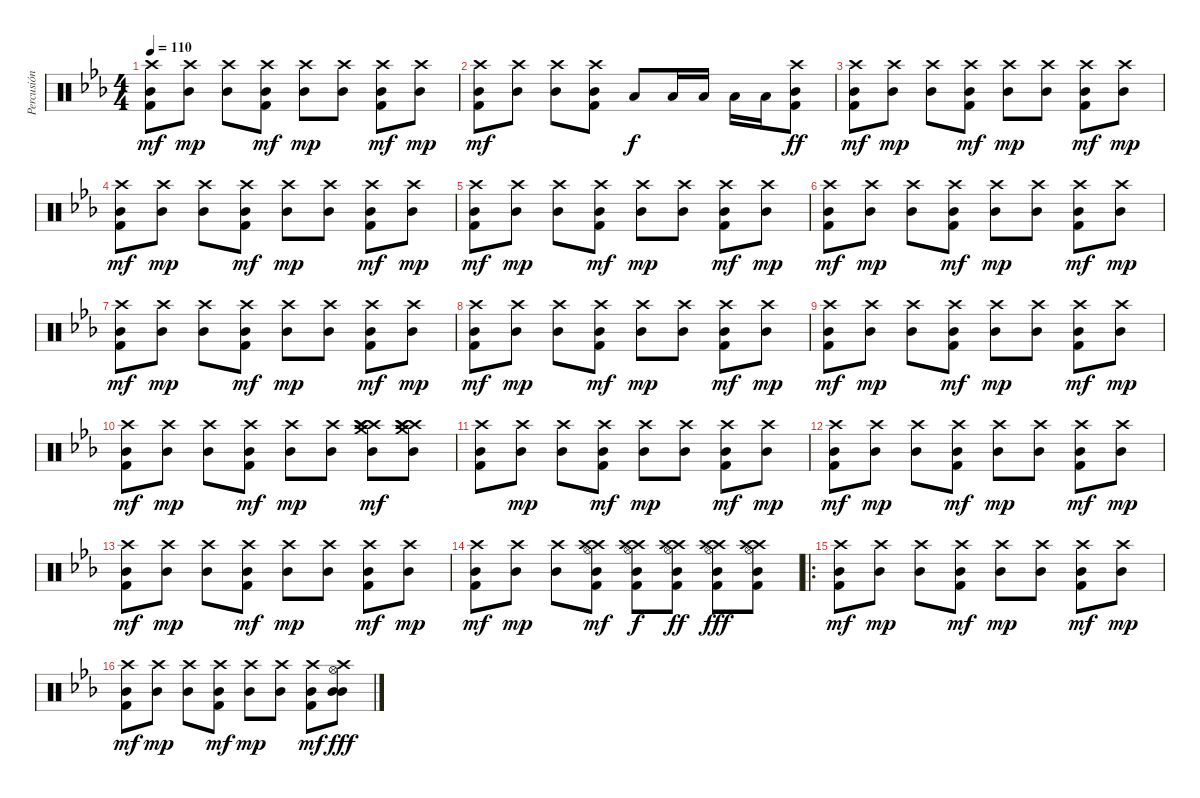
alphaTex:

\track ("Percusión" "Percusión") {instrument percussion}
\staff {score}
\articulation defaults
\ts (4 4)
\tempo 110
\clef neutral
\ks eb
("Kick (hit) 2" "Mid Tom (hit)" "Crash high (hit)").8{dy mf} ("Mid Tom (hit)" "Crash high (hit)").8{dy mp} ("Mid Tom (hit)" "Crash high (hit)").8 ("Kick (hit) 2" "Mid Tom (hit)" "Crash high (hit)").8{dy mf} ("Mid Tom (hit)" "Crash high (hit)").8{dy mp} ("Mid Tom (hit)" "Crash high (hit)").8 ("Kick (hit) 2" "Mid Tom (hit)" "Crash high (hit)").8{dy mf} ("Mid Tom (hit)" "Crash high (hit)").8{dy mp} |
("Kick (hit) 2" "Mid Tom (hit)" "Crash high (hit)").8{dy mf} ("Mid Tom (hit)" "Crash high (hit)").8 ("Mid Tom (hit)" "Crash high (hit)").8 ("Kick (hit) 2" "Mid Tom (hit)" "Crash high (hit)").8 "Low Tom (hit)".8{dy f} "Low Tom (hit)".16 "Low Tom (hit)".16 "Low Tom (hit)".16 "Low Tom (hit)".16 ("Kick (hit) 2" "Mid Tom (hit)" "Crash high (hit)").8{dy ff} |
("Kick (hit) 2" "Mid Tom (hit)" "Crash high (hit)").8{dy mf} ("Mid Tom (hit)" "Crash high (hit)").8{dy mp} ("Mid Tom (hit)" "Crash high (hit)").8 ("Kick (hit) 2" "Mid Tom (hit)" "Crash high (hit)").8{dy mf} ("Mid Tom (hit)" "Crash high (hit)").8{dy mp} ("Mid Tom (hit)" "Crash high (hit)").8 ("Kick (hit) 2" "Mid Tom (hit)" "Crash high (hit)").8{dy mf} ("Mid Tom (hit)" "Crash high (hit)").8{dy mp} |
("Kick (hit) 2" "Mid Tom (hit)" "Crash high (hit)").8{dy mf} ("Mid Tom (hit)" "Crash high (hit)").8{dy mp} ("Mid Tom (hit)" "Crash high (hit)").8 ("Kick (hit) 2" "Mid Tom (hit)" "Crash high (hit)").8{dy mf} ("Mid Tom (hit)" "Crash high (hit)").8{dy mp} ("Mid Tom (hit)" "Crash high (hit)").8 ("Kick (hit) 2" "Mid Tom (hit)" "Crash high (hit)").8{dy mf} ("Mid Tom (hit)" "Crash high (hit)").8{dy mp} |
("Kick (hit) 2" "Mid Tom (hit)" "Crash high (hit)").8{dy mf} ("Mid Tom (hit)" "Crash high (hit)").8{dy mp} ("Mid Tom (hit)" "Crash high (hit)").8 ("Kick (hit) 2" "Mid Tom (hit)" "Crash high (hit)").8{dy mf} ("Mid Tom (hit)" "Crash high (hit)").8{dy mp} ("Mid Tom (hit)" "Crash high (hit)").8 ("Kick (hit) 2" "Mid Tom (hit)" "Crash high (hit)").8{dy mf} ("Mid Tom (hit)" "Crash high (hit)").8{dy mp} |
("Kick (hit) 2" "Mid Tom (hit)" "Crash high (hit)").8{dy mf} ("Mid Tom (hit)" "Crash high (hit)").8{dy mp} ("Mid Tom (hit)" "Crash high (hit)").8 ("Kick (hit) 2" "Mid Tom (hit)" "Crash high (hit)").8{dy mf} ("Mid Tom (hit)" "Crash high (hit)").8{dy mp} ("Mid Tom (hit)" "Crash high (hit)").8 ("Kick (hit) 2" "Mid Tom (hit)" "Crash high (hit)").8{dy mf} ("Mid Tom (hit)" "Crash high (hit)").8{dy mp} |
("Kick (hit) 2" "Mid Tom (hit)" "Crash high (hit)").8{dy mf} ("Mid Tom (hit)" "Crash high (hit)").8{dy mp} ("Mid Tom (hit)" "Crash high (hit)").8 ("Kick (hit) 2" "Mid Tom (hit)" "Crash high (hit)").8{dy mf} ("Mid Tom (hit)" "Crash high (hit)").8{dy mp} ("Mid Tom (hit)" "Crash high (hit)").8 ("Kick (hit) 2" "Mid Tom (hit)" "Crash high (hit)").8{dy mf} ("Mid Tom (hit)" "Crash high (hit)").8{dy mp} |
("Kick (hit) 2" "Mid Tom (hit)" "Crash high (hit)").8{dy mf} ("Mid Tom (hit)" "Crash high (hit)").8{dy mp} ("Mid Tom (hit)" "Crash high (hit)").8 ("Kick (hit) 2" "Mid Tom (hit)" "Crash high (hit)").8{dy mf} ("Mid Tom (hit)" "Crash high (hit)").8{dy mp} ("Mid Tom (hit)" "Crash high (hit)").8 ("Kick (hit) 2" "Mid Tom (hit)" "Crash high (hit)").8{dy mf} ("Mid Tom (hit)" "Crash high (hit)").8{dy mp} |
("Kick (hit) 2" "Mid Tom (hit)" "Crash high (hit)").8{dy mf} ("Mid Tom (hit)" "Crash high (hit)").8{dy mp} ("Mid Tom (hit)" "Crash high (hit)").8 ("Kick (hit) 2" "Mid Tom (hit)" "Crash high (hit)").8{dy mf} ("Mid Tom (hit)" "Crash high (hit)").8{dy mp} ("Mid Tom (hit)" "Crash high (hit)").8 ("Kick (hit) 2" "Mid Tom (hit)" "Crash high (hit)").8{dy mf} ("Mid Tom (hit)" "Crash high (hit)").8{dy mp} |
("Kick (hit) 2" "Mid Tom (hit)" "Crash high (hit)").8{dy mf} ("Mid Tom (hit)" "Crash high (hit)").8{dy mp} ("Mid Tom (hit)" "Crash high (hit)").8 ("Kick (hit) 2" "Mid Tom (hit)" "Crash high (hit)").8{dy mf} ("Mid Tom (hit)" "Crash high (hit)").8{dy mp} ("Mid Tom (hit)" "Crash high (hit)").8 ("Crash high (hit)" "Crash high (hit)" "Crash medium (hit)" "Mid Tom (hit)" "Crash high (hit)").8{dy mf} ("Crash high (hit)" "Crash high (hit)" "Crash medium (hit)" "Mid Tom (hit)" "Crash high (hit)").8 |
("Kick (hit) 2" "Mid Tom (hit)" "Crash high (hit)").8 ("Mid Tom (hit)" "Crash high (hit)").8{dy mp} ("Mid Tom (hit)" "Crash high (hit)").8 ("Kick (hit) 2" "Mid Tom (hit)" "Crash high (hit)").8{dy mf} ("Mid Tom (hit)" "Crash high (hit)").8{dy mp} ("Mid Tom (hit)" "Crash high (hit)").8 ("Kick (hit) 2" "Mid Tom (hit)" "Crash high (hit)").8{dy mf} ("Mid Tom (hit)" "Crash high (hit)").8{dy mp} |
("Kick (hit) 2" "Mid Tom (hit)" "Crash high (hit)").8{dy mf} ("Mid Tom (hit)" "Crash high (hit)").8{dy mp} ("Mid Tom (hit)" "Crash high (hit)").8 ("Kick (hit) 2" "Mid Tom (hit)" "Crash high (hit)").8{dy mf} ("Mid Tom (hit)" "Crash high (hit)").8{dy mp} ("Mid Tom (hit)" "Crash high (hit)").8 ("Kick (hit) 2" "Mid Tom (hit)" "Crash high (hit)").8{dy mf} ("Mid Tom (hit)" "Crash high (hit)").8{dy mp} |
("Kick (hit) 2" "Mid Tom (hit)" "Crash high (hit)").8{dy mf} ("Mid Tom (hit)" "Crash high (hit)").8{dy mp} ("Mid Tom (hit)" "Crash high (hit)").8 ("Kick (hit) 2" "Mid Tom (hit)" "Crash high (hit)").8{dy mf} ("Mid Tom (hit)" "Crash high (hit)").8{dy mp} ("Mid Tom (hit)" "Crash high (hit)").8 ("Kick (hit) 2" "Mid Tom (hit)" "Crash high (hit)").8{dy mf} ("Mid Tom (hit)" "Crash high (hit)").8{dy mp} |
("Kick (hit) 2" "Mid Tom (hit)" "Crash high (hit)").8{dy mf} ("Mid Tom (hit)" "Crash high (hit)").8{dy mp} ("Mid Tom (hit)" "Crash high (hit)").8 ("Hi-Hat (open)" "Crash high (hit)" "Kick (hit) 2" "Mid Tom (hit)" "Crash high (hit)").8{dy mf} ("Hi-Hat (open)" "Crash high (hit)" "Kick (hit) 2" "Mid Tom (hit)" "Crash high (hit)").8{dy f} ("Hi-Hat (open)" "Crash high (hit)" "Kick (hit) 2" "Mid Tom (hit)" "Crash high (hit)").8{dy ff} ("Hi-Hat (open)" "Crash high (hit)" "Kick (hit) 2" "Mid Tom (hit)" "Crash high (hit)").8{dy fff} ("Hi-Hat (open)" "Crash high (hit)" "Kick (hit) 2" "Mid Tom (hit)" "Crash high (hit)").8 |
\ro
("Kick (hit) 2" "Mid Tom (hit)" "Crash high (hit)").8{dy mf} ("Mid Tom (hit)" "Crash high (hit)").8{dy mp} ("Mid Tom (hit)" "Crash high (hit)").8 ("Kick (hit) 2" "Mid Tom (hit)" "Crash high (hit)").8{dy mf} ("Mid Tom (hit)" "Crash high (hit)").8{dy mp} ("Mid Tom (hit)" "Crash high (hit)").8 ("Kick (hit) 2" "Mid Tom (hit)" "Crash high (hit)").8{dy mf} ("Mid Tom (hit)" "Crash high (hit)").8{dy mp} |
("Kick (hit) 2" "Mid Tom (hit)" "Crash high (hit)").8{dy mf} ("Mid Tom (hit)" "Crash high (hit)").8{dy mp} ("Mid Tom (hit)" "Crash high (hit)").8 ("Kick (hit) 2" "Mid Tom (hit)" "Crash high (hit)").8{dy mf} ("Mid Tom (hit)" "Crash high (hit)").8{dy mp} ("Mid Tom (hit)" "Crash high (hit)").8 ("Kick (hit) 2" "Mid Tom (hit)" "Crash high (hit)").8{dy mf} ("Hi-Hat (open)" "Mid Tom (hit)" "Mid Tom (hit)" "Crash high (hit)").8{dy fff}
